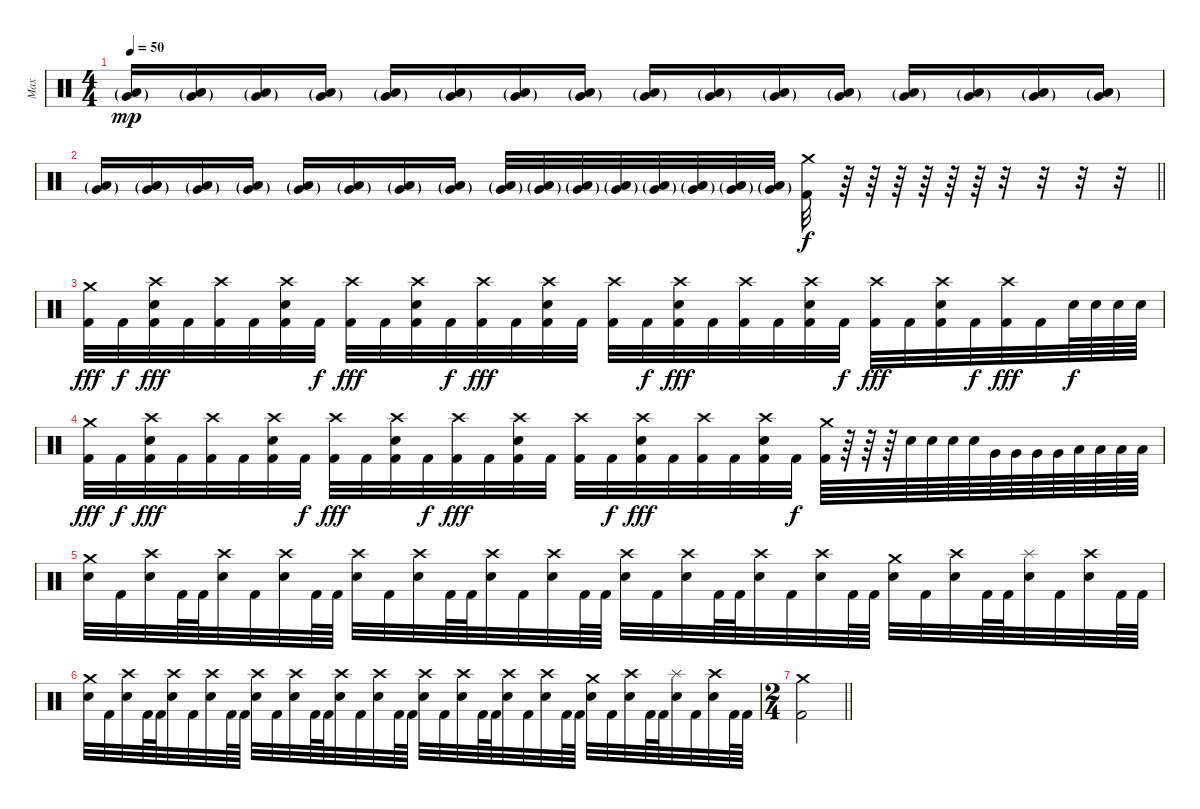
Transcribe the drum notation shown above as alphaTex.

\track ("Max" "Max") {instrument percussion}
\staff {score}
\articulation defaults
\ts (4 4)
\tempo 50
\clef neutral
\ks c
("Very Low Tom (hit)"{g} "Low Floor Tom (hit)"{g}).16{dy mp} ("Very Low Tom (hit)"{g} "Low Floor Tom (hit)"{g}).16 ("Very Low Tom (hit)"{g} "Low Floor Tom (hit)"{g}).16 ("Very Low Tom (hit)"{g} "Low Floor Tom (hit)"{g}).16 ("Very Low Tom (hit)"{g} "Low Floor Tom (hit)"{g}).16 ("Very Low Tom (hit)"{g} "Low Floor Tom (hit)"{g}).16 ("Very Low Tom (hit)"{g} "Low Floor Tom (hit)"{g}).16 ("Very Low Tom (hit)"{g} "Low Floor Tom (hit)"{g}).16 ("Very Low Tom (hit)"{g} "Low Floor Tom (hit)"{g}).16 ("Very Low Tom (hit)"{g} "Low Floor Tom (hit)"{g}).16 ("Very Low Tom (hit)"{g} "Low Floor Tom (hit)"{g}).16 ("Very Low Tom (hit)"{g} "Low Floor Tom (hit)"{g}).16 ("Very Low Tom (hit)"{g} "Low Floor Tom (hit)"{g}).16 ("Very Low Tom (hit)"{g} "Low Floor Tom (hit)"{g}).16 ("Very Low Tom (hit)"{g} "Low Floor Tom (hit)"{g}).16 ("Very Low Tom (hit)"{g} "Low Floor Tom (hit)"{g}).16 |
\barLineRight lightlight
("Very Low Tom (hit)"{g} "Low Floor Tom (hit)"{g}).16 ("Very Low Tom (hit)"{g} "Low Floor Tom (hit)"{g}).16 ("Very Low Tom (hit)"{g} "Low Floor Tom (hit)"{g}).16 ("Very Low Tom (hit)"{g} "Low Floor Tom (hit)"{g}).16 ("Very Low Tom (hit)"{g} "Low Floor Tom (hit)"{g}).16 ("Very Low Tom (hit)"{g} "Low Floor Tom (hit)"{g}).16 ("Very Low Tom (hit)"{g} "Low Floor Tom (hit)"{g}).16 ("Very Low Tom (hit)"{g} "Low Floor Tom (hit)"{g}).16 ("Very Low Tom (hit)"{g} "Low Floor Tom (hit)"{g}).32 ("Very Low Tom (hit)"{g} "Low Floor Tom (hit)"{g}).32 ("Very Low Tom (hit)"{g} "Low Floor Tom (hit)"{g}).32 ("Very Low Tom (hit)"{g} "Low Floor Tom (hit)"{g}).32 ("Very Low Tom (hit)"{g} "Low Floor Tom (hit)"{g}).32 ("Very Low Tom (hit)"{g} "Low Floor Tom (hit)"{g}).32 ("Very Low Tom (hit)"{g} "Low Floor Tom (hit)"{g}).32 ("Very Low Tom (hit)"{g} "Low Floor Tom (hit)"{g}).32 ("Crash medium (hit)" "Kick (hit) 2").32{dy f} r.64 r.64 r.64 r.64 r.64 r.64 r.32 r.32 r.32 r.32 |
\section ("" "")
("Crash medium (hit)" "Kick (hit) 2").32{dy fff} "Kick (hit) 2".32{dy f} ("Crash high (hit)" "Electric Snare (hit)" "Kick (hit) 2").32{dy fff} "Kick (hit) 2".32 ("Crash high (hit)" "Kick (hit) 2").32 "Kick (hit) 2".32 ("Crash high (hit)" "Electric Snare (hit)" "Kick (hit) 2").32 "Kick (hit) 2".32{dy f} ("Crash high (hit)" "Kick (hit) 2").32{dy fff} "Kick (hit) 2".32 ("Crash high (hit)" "Electric Snare (hit)" "Kick (hit) 2").32 "Kick (hit) 2".32{dy f} ("Crash high (hit)" "Kick (hit) 2").32{dy fff} "Kick (hit) 2".32 ("Crash high (hit)" "Electric Snare (hit)" "Kick (hit) 2").32 "Kick (hit) 2".32 ("Crash high (hit)" "Kick (hit) 2").32 "Kick (hit) 2".32{dy f} ("Crash high (hit)" "Electric Snare (hit)" "Kick (hit) 2").32{dy fff} "Kick (hit) 2".32 ("Crash high (hit)" "Kick (hit) 2").32 "Kick (hit) 2".32 ("Crash high (hit)" "Electric Snare (hit)" "Kick (hit) 2").32 "Kick (hit) 2".32{dy f} ("Crash high (hit)" "Kick (hit) 2").32{dy fff} "Kick (hit) 2".32 ("Crash high (hit)" "Electric Snare (hit)" "Kick (hit) 2").32 "Kick (hit) 2".32{dy f} ("Crash high (hit)" "Kick (hit) 2").32{dy fff} "Kick (hit) 2".32 "Electric Snare (hit)".64{dy f} "Electric Snare (hit)".64 "Electric Snare (hit)".64 "Electric Snare (hit)".64 |
("Crash medium (hit)" "Kick (hit) 2").32{dy fff} "Kick (hit) 2".32{dy f} ("Crash high (hit)" "Electric Snare (hit)" "Kick (hit) 2").32{dy fff} "Kick (hit) 2".32 ("Crash high (hit)" "Kick (hit) 2").32 "Kick (hit) 2".32 ("Crash high (hit)" "Electric Snare (hit)" "Kick (hit) 2").32 "Kick (hit) 2".32{dy f} ("Crash high (hit)" "Kick (hit) 2").32{dy fff} "Kick (hit) 2".32 ("Crash high (hit)" "Electric Snare (hit)" "Kick (hit) 2").32 "Kick (hit) 2".32{dy f} ("Crash high (hit)" "Kick (hit) 2").32{dy fff} "Kick (hit) 2".32 ("Crash high (hit)" "Electric Snare (hit)" "Kick (hit) 2").32 "Kick (hit) 2".32 ("Crash high (hit)" "Kick (hit) 2").32 "Kick (hit) 2".32{dy f} ("Crash high (hit)" "Electric Snare (hit)" "Kick (hit) 2").32{dy fff} "Kick (hit) 2".32 ("Crash high (hit)" "Kick (hit) 2").32 "Kick (hit) 2".32 ("Crash high (hit)" "Electric Snare (hit)" "Kick (hit) 2").32 "Kick (hit) 2".32{dy f} ("Crash medium (hit)" "Kick (hit) 2").64 r.64 r.64 r.64 "Electric Snare (hit)".64 "Electric Snare (hit)".64 "Electric Snare (hit)".64 "Electric Snare (hit)".64 "Very Low Tom (hit)".64 "Very Low Tom (hit)".64 "Very Low Tom (hit)".64 "Very Low Tom (hit)".64 "Low Floor Tom (hit)".64 "Low Floor Tom (hit)".64 "Low Floor Tom (hit)".64 "Low Floor Tom (hit)".64 |
("Crash medium (hit)" "Electric Snare (hit)").32 "Kick (hit) 2".32 ("Crash high (hit)" "Electric Snare (hit)").32 "Kick (hit) 2".64 "Kick (hit) 2".64 ("Crash high (hit)" "Electric Snare (hit)").32 "Kick (hit) 2".32 ("Crash high (hit)" "Electric Snare (hit)").32 "Kick (hit) 2".64 "Kick (hit) 2".64 ("Crash high (hit)" "Electric Snare (hit)").32 "Kick (hit) 2".32 ("Crash high (hit)" "Electric Snare (hit)").32 "Kick (hit) 2".64 "Kick (hit) 2".64 ("Crash high (hit)" "Electric Snare (hit)").32 "Kick (hit) 2".32 ("Crash high (hit)" "Electric Snare (hit)").32 "Kick (hit) 2".64 "Kick (hit) 2".64 ("Crash high (hit)" "Electric Snare (hit)").32 "Kick (hit) 2".32 ("Crash high (hit)" "Electric Snare (hit)").32 "Kick (hit) 2".64 "Kick (hit) 2".64 ("Crash high (hit)" "Electric Snare (hit)").32 "Kick (hit) 2".32 ("Crash high (hit)" "Electric Snare (hit)").32 "Kick (hit) 2".64 "Kick (hit) 2".64 ("Crash medium (hit)" "Electric Snare (hit)").32 "Kick (hit) 2".32 ("Crash high (hit)" "Electric Snare (hit)").32 "Kick (hit) 2".64 "Kick (hit) 2".64 ("Splash (hit)" "Electric Snare (hit)").32 "Kick (hit) 2".32 ("Crash high (hit)" "Electric Snare (hit)").32 "Kick (hit) 2".64 "Kick (hit) 2".64 |
("Crash medium (hit)" "Electric Snare (hit)").32 "Kick (hit) 2".32 ("Crash high (hit)" "Electric Snare (hit)").32 "Kick (hit) 2".64 "Kick (hit) 2".64 ("Crash high (hit)" "Electric Snare (hit)").32 "Kick (hit) 2".32 ("Crash high (hit)" "Electric Snare (hit)").32 "Kick (hit) 2".64 "Kick (hit) 2".64 ("Crash high (hit)" "Electric Snare (hit)").32 "Kick (hit) 2".32 ("Crash high (hit)" "Electric Snare (hit)").32 "Kick (hit) 2".64 "Kick (hit) 2".64 ("Crash high (hit)" "Electric Snare (hit)").32 "Kick (hit) 2".32 ("Crash high (hit)" "Electric Snare (hit)").32 "Kick (hit) 2".64 "Kick (hit) 2".64 ("Crash high (hit)" "Electric Snare (hit)").32 "Kick (hit) 2".32 ("Crash high (hit)" "Electric Snare (hit)").32 "Kick (hit) 2".64 "Kick (hit) 2".64 ("Crash high (hit)" "Electric Snare (hit)").32 "Kick (hit) 2".32 ("Crash high (hit)" "Electric Snare (hit)").32 "Kick (hit) 2".64 "Kick (hit) 2".64 ("Crash medium (hit)" "Electric Snare (hit)").32 "Kick (hit) 2".32 ("Crash high (hit)" "Electric Snare (hit)").32 "Kick (hit) 2".64 "Kick (hit) 2".64 ("Splash (hit)" "Electric Snare (hit)").32 "Kick (hit) 2".32 ("Crash high (hit)" "Electric Snare (hit)").32 "Kick (hit) 2".64 "Kick (hit) 2".64 |
\ts (2 4)
\barLineRight lightlight
("Crash medium (hit)" "Kick (hit) 2").2
